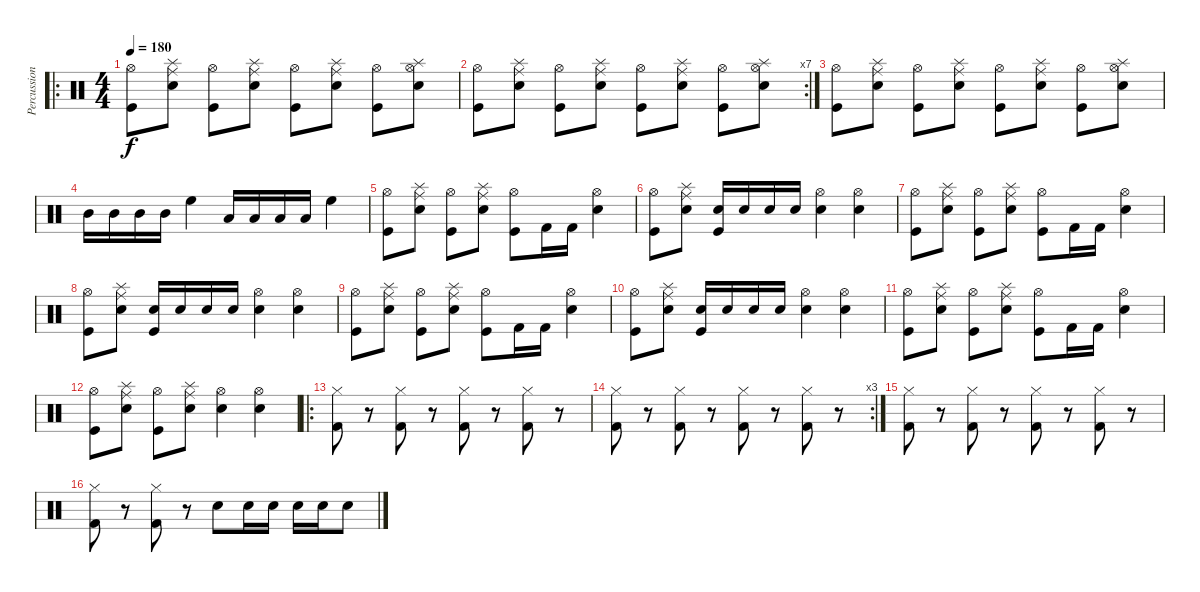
\track ("Percussions" "Percussion") {instrument percussion}
\staff {score}
\articulation defaults
\ro
\ts (4 4)
\tempo 180
\clef neutral
\ks c
("Kick (hit)" "Hi-Hat (open)").8{dy f} ("Snare (hit) 2" "Ride (middle)" "Splash (hit)").8 ("Kick (hit)" "Hi-Hat (open)").8 ("Snare (hit) 2" "Ride (middle)" "Splash (hit)").8 ("Kick (hit)" "Hi-Hat (open)").8 ("Snare (hit) 2" "Ride (middle)" "Splash (hit)").8 ("Kick (hit)" "Hi-Hat (open)").8 ("Snare (hit) 2" "Hi-Hat (open)" "Splash (hit)").8 |
\rc 7
("Kick (hit)" "Hi-Hat (open)").8 ("Snare (hit) 2" "Ride (middle)" "Splash (hit)").8 ("Kick (hit)" "Hi-Hat (open)").8 ("Snare (hit) 2" "Ride (middle)" "Splash (hit)").8 ("Kick (hit)" "Hi-Hat (open)").8 ("Snare (hit) 2" "Ride (middle)" "Splash (hit)").8 ("Kick (hit)" "Hi-Hat (open)").8 ("Snare (hit) 2" "Hi-Hat (open)" "Splash (hit)").8 |
("Kick (hit)" "Hi-Hat (open)").8 ("Snare (hit) 2" "Ride (middle)" "Splash (hit)").8 ("Kick (hit)" "Hi-Hat (open)").8 ("Snare (hit) 2" "Ride (middle)" "Splash (hit)").8 ("Kick (hit)" "Hi-Hat (open)").8 ("Snare (hit) 2" "Ride (middle)" "Splash (hit)").8 ("Kick (hit)" "Hi-Hat (open)").8 ("Snare (hit) 2" "Hi-Hat (open)" "Splash (hit)").8 |
"Mid Tom (hit)".16 "Mid Tom (hit)".16 "Mid Tom (hit)".16 "Mid Tom (hit)".16 "High Floor Tom (hit)".4 "Low Tom (hit)".16 "Low Tom (hit)".16 "Low Tom (hit)".16 "Low Tom (hit)".16 "High Floor Tom (hit)".4 |
("Kick (hit)" "Hi-Hat (open)").8 ("Snare (hit) 2" "Ride (middle)" "Splash (hit)").8 ("Kick (hit)" "Hi-Hat (open)").8 ("Snare (hit) 2" "Ride (middle)" "Splash (hit)").8 ("Kick (hit)" "Hi-Hat (open)").8 "Kick (hit) 2".16 "Kick (hit) 2".16 ("Hi-Hat (open)" "Electric Snare (hit)").4 |
("Kick (hit)" "Hi-Hat (open)").8 ("Snare (hit) 2" "Ride (middle)" "Splash (hit)").8 ("Electric Snare (hit)" "Kick (hit)").16 "Electric Snare (hit)".16 "Electric Snare (hit)".16 "Electric Snare (hit)".16 ("Hi-Hat (open)" "Electric Snare (hit)").4 ("Hi-Hat (open)" "Electric Snare (hit)").4 |
("Kick (hit)" "Hi-Hat (open)").8 ("Snare (hit) 2" "Ride (middle)" "Splash (hit)").8 ("Kick (hit)" "Hi-Hat (open)").8 ("Snare (hit) 2" "Ride (middle)" "Splash (hit)").8 ("Kick (hit)" "Hi-Hat (open)").8 "Kick (hit) 2".16 "Kick (hit) 2".16 ("Hi-Hat (open)" "Electric Snare (hit)").4 |
("Kick (hit)" "Hi-Hat (open)").8 ("Snare (hit) 2" "Ride (middle)" "Splash (hit)").8 ("Electric Snare (hit)" "Kick (hit)").16 "Electric Snare (hit)".16 "Electric Snare (hit)".16 "Electric Snare (hit)".16 ("Hi-Hat (open)" "Electric Snare (hit)").4 ("Hi-Hat (open)" "Electric Snare (hit)").4 |
("Kick (hit)" "Hi-Hat (open)").8 ("Snare (hit) 2" "Ride (middle)" "Splash (hit)").8 ("Kick (hit)" "Hi-Hat (open)").8 ("Snare (hit) 2" "Ride (middle)" "Splash (hit)").8 ("Kick (hit)" "Hi-Hat (open)").8 "Kick (hit) 2".16 "Kick (hit) 2".16 ("Hi-Hat (open)" "Electric Snare (hit)").4 |
("Kick (hit)" "Hi-Hat (open)").8 ("Snare (hit) 2" "Ride (middle)" "Splash (hit)").8 ("Electric Snare (hit)" "Kick (hit)").16 "Electric Snare (hit)".16 "Electric Snare (hit)".16 "Electric Snare (hit)".16 ("Hi-Hat (open)" "Electric Snare (hit)").4 ("Hi-Hat (open)" "Electric Snare (hit)").4 |
("Kick (hit)" "Hi-Hat (open)").8 ("Snare (hit) 2" "Ride (middle)" "Splash (hit)").8 ("Kick (hit)" "Hi-Hat (open)").8 ("Snare (hit) 2" "Ride (middle)" "Splash (hit)").8 ("Kick (hit)" "Hi-Hat (open)").8 "Kick (hit) 2".16 "Kick (hit) 2".16 ("Hi-Hat (open)" "Electric Snare (hit)").4 |
("Kick (hit)" "Hi-Hat (open)").8 ("Snare (hit) 2" "Ride (middle)" "Splash (hit)").8 ("Kick (hit)" "Hi-Hat (open)").8 ("Snare (hit) 2" "Ride (middle)" "Splash (hit)").8 ("Hi-Hat (open)" "Electric Snare (hit)").4 ("Hi-Hat (open)" "Electric Snare (hit)").4 |
\ro
("Hi-Hat (closed)" "Kick (hit) 2").8 r.8 ("Hi-Hat (closed)" "Kick (hit) 2").8 r.8 ("Hi-Hat (closed)" "Kick (hit) 2").8 r.8 ("Hi-Hat (closed)" "Kick (hit) 2").8 r.8 |
\rc 3
("Hi-Hat (closed)" "Kick (hit) 2").8 r.8 ("Hi-Hat (closed)" "Kick (hit) 2").8 r.8 ("Hi-Hat (closed)" "Kick (hit) 2").8 r.8 ("Hi-Hat (closed)" "Kick (hit) 2").8 r.8 |
("Hi-Hat (closed)" "Kick (hit) 2").8 r.8 ("Hi-Hat (closed)" "Kick (hit) 2").8 r.8 ("Hi-Hat (closed)" "Kick (hit) 2").8 r.8 ("Hi-Hat (closed)" "Kick (hit) 2").8 r.8 |
("Hi-Hat (closed)" "Kick (hit) 2").8 r.8 ("Hi-Hat (closed)" "Kick (hit) 2").8 r.8 "Electric Snare (hit)".8 "Electric Snare (hit)".16 "Electric Snare (hit)".16 "Electric Snare (hit)".16 "Electric Snare (hit)".16 "Electric Snare (hit)".8
